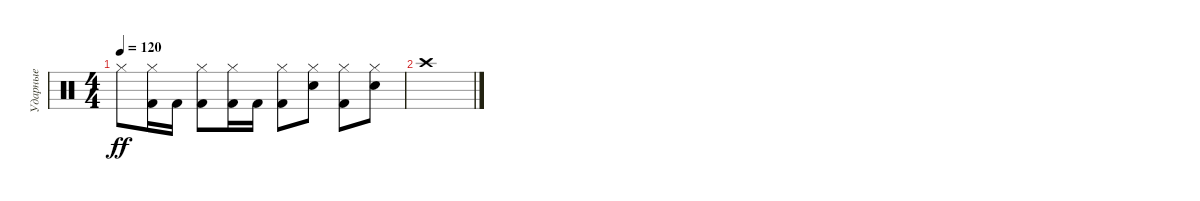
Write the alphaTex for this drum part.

\track ("Ударные" "Ударные") {instrument percussion}
\staff {score}
\articulation defaults
\ts (4 4)
\tempo 120
\clef neutral
\ks c "Hi-Hat (closed)".8{dy ff}
("Hi-Hat (closed)" "Kick (hit) 2").16 "Kick (hit) 2".16 ("Hi-Hat (closed)" "Kick (hit) 2").8 ("Hi-Hat (closed)" "Kick (hit) 2").16 "Kick (hit) 2".16 ("Hi-Hat (closed)" "Kick (hit) 2").8 ("Hi-Hat (closed)" "Electric Snare (hit)").8 ("Hi-Hat (closed)" "Kick (hit) 2").8 ("Hi-Hat (closed)" "Electric Snare (hit)").8 |
"Crash high (hit)".1
